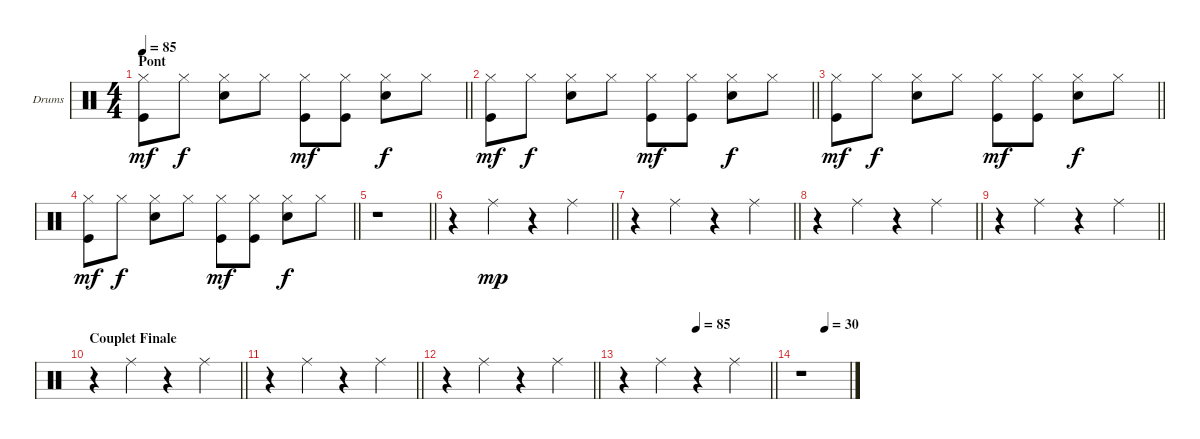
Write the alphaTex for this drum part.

\bracketExtendMode groupsimilarinstruments
\firstSystemTrackNameOrientation horizontal
\otherSystemsTrackNameOrientation horizontal
\chordDiagramsInScore
\track ("Drumkit" "Drums") {instrument percussion}
\staff {score}
\articulation defaults
\ts (4 4)
\section ("" "Pont")
\tempo 85
\clef neutral
\barLineRight lightlight
\ks c
("Hi-Hat (closed)" "Kick (hit)").8{dy mf} "Hi-Hat (closed)".8{dy f} ("Hi-Hat (closed)" "Snare (hit) 2").8 "Hi-Hat (closed)".8 ("Hi-Hat (closed)" "Kick (hit)").8{dy mf} ("Hi-Hat (closed)" "Kick (hit)").8 ("Hi-Hat (closed)" "Snare (hit) 2").8{dy f} "Hi-Hat (closed)".8 |
\barLineRight lightlight
("Hi-Hat (closed)" "Kick (hit)").8{dy mf} "Hi-Hat (closed)".8{dy f} ("Hi-Hat (closed)" "Snare (hit) 2").8 "Hi-Hat (closed)".8 ("Hi-Hat (closed)" "Kick (hit)").8{dy mf} ("Hi-Hat (closed)" "Kick (hit)").8 ("Hi-Hat (closed)" "Snare (hit) 2").8{dy f} "Hi-Hat (closed)".8 |
\barLineRight lightlight
("Hi-Hat (closed)" "Kick (hit)").8{dy mf} "Hi-Hat (closed)".8{dy f} ("Hi-Hat (closed)" "Snare (hit) 2").8 "Hi-Hat (closed)".8 ("Hi-Hat (closed)" "Kick (hit)").8{dy mf} ("Hi-Hat (closed)" "Kick (hit)").8 ("Hi-Hat (closed)" "Snare (hit) 2").8{dy f} "Hi-Hat (closed)".8 |
\barLineRight lightlight
("Hi-Hat (closed)" "Kick (hit)").8{dy mf} "Hi-Hat (closed)".8{dy f} ("Hi-Hat (closed)" "Snare (hit) 2").8 "Hi-Hat (closed)".8 ("Hi-Hat (closed)" "Kick (hit)").8{dy mf} ("Hi-Hat (closed)" "Kick (hit)").8 ("Hi-Hat (closed)" "Snare (hit) 2").8{dy f} "Hi-Hat (closed)".8 |
\barLineRight lightlight
r.1 |
\barLineRight lightlight
r.4 "Ride (middle)".4{dy mp} r.4 "Ride (middle)".4 |
\barLineRight lightlight
r.4 "Ride (middle)".4 r.4 "Ride (middle)".4 |
\barLineRight lightlight
r.4 "Ride (middle)".4 r.4 "Ride (middle)".4 |
\barLineRight lightlight
r.4 "Ride (middle)".4 r.4 "Ride (middle)".4 |
\section ("" "Couplet Finale")
\barLineRight lightlight
r.4 "Ride (middle)".4 r.4 "Ride (middle)".4 |
\barLineRight lightlight
r.4 "Ride (middle)".4 r.4 "Ride (middle)".4 |
\barLineRight lightlight
r.4 "Ride (middle)".4 r.4 "Ride (middle)".4 |
\tempo (85 0.5)
\barLineRight lightlight
r.4 "Ride (middle)".4 r.4 "Ride (middle)".4 |
\tempo (30 0.5)
r.1
